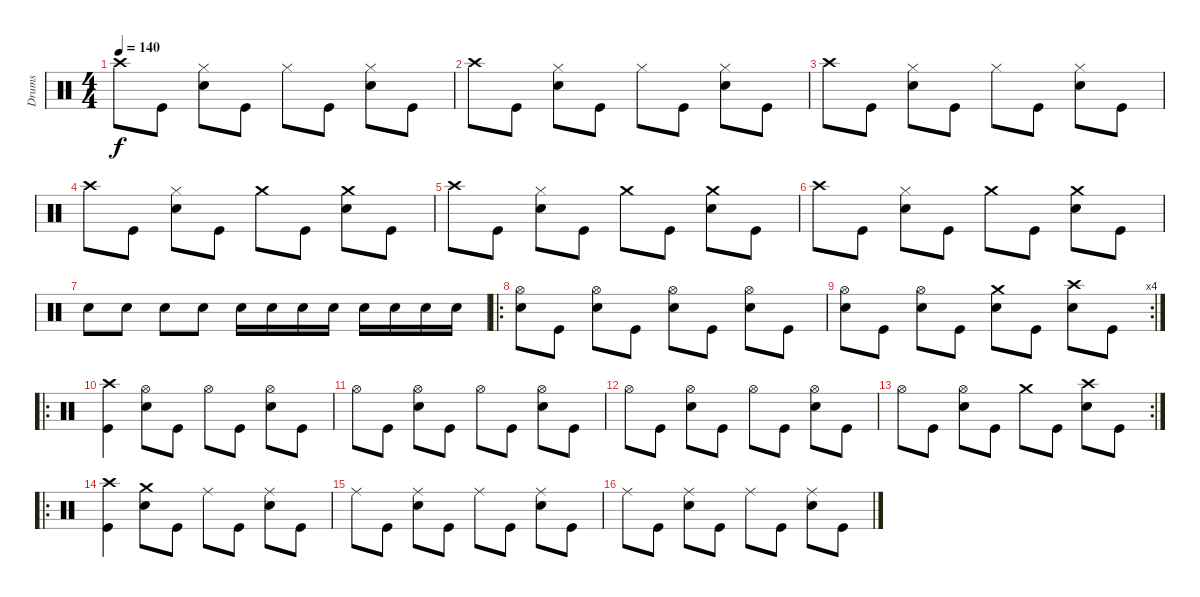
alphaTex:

\track ("Drums" "Drums") {instrument percussion}
\staff {score}
\articulation defaults
\ts (4 4)
\tempo 140
\clef neutral
\ks c "Crash high (hit)".8{dy f} "Kick (hit)".8
("Hi-Hat (closed)" "Electric Snare (hit)").8 "Kick (hit)".8 "Hi-Hat (closed)".8 "Kick (hit)".8 ("Hi-Hat (closed)" "Electric Snare (hit)").8 "Kick (hit)".8 |
"Crash high (hit)".8 "Kick (hit)".8 ("Hi-Hat (closed)" "Electric Snare (hit)").8 "Kick (hit)".8 "Hi-Hat (closed)".8 "Kick (hit)".8 ("Hi-Hat (closed)" "Electric Snare (hit)").8 "Kick (hit)".8 |
"Crash high (hit)".8 "Kick (hit)".8 ("Hi-Hat (closed)" "Electric Snare (hit)").8 "Kick (hit)".8 "Hi-Hat (closed)".8 "Kick (hit)".8 ("Hi-Hat (closed)" "Electric Snare (hit)").8 "Kick (hit)".8 |
"Crash high (hit)".8 "Kick (hit)".8 ("Hi-Hat (closed)" "Electric Snare (hit)").8 "Kick (hit)".8 "Crash medium (hit)".8 "Kick (hit)".8 ("Crash medium (hit)" "Electric Snare (hit)").8 "Kick (hit)".8 |
"Crash high (hit)".8 "Kick (hit)".8 ("Hi-Hat (closed)" "Electric Snare (hit)").8 "Kick (hit)".8 "Crash medium (hit)".8 "Kick (hit)".8 ("Crash medium (hit)" "Electric Snare (hit)").8 "Kick (hit)".8 |
"Crash high (hit)".8 "Kick (hit)".8 ("Hi-Hat (closed)" "Electric Snare (hit)").8 "Kick (hit)".8 "Crash medium (hit)".8 "Kick (hit)".8 ("Crash medium (hit)" "Electric Snare (hit)").8 "Kick (hit)".8 |
"Electric Snare (hit)".8 "Electric Snare (hit)".8 "Electric Snare (hit)".8 "Electric Snare (hit)".8 "Electric Snare (hit)".16 "Electric Snare (hit)".16 "Electric Snare (hit)".16 "Electric Snare (hit)".16 "Electric Snare (hit)".16 "Electric Snare (hit)".16 "Electric Snare (hit)".16 "Electric Snare (hit)".16 |
\ro
("Hi-Hat (open)" "Electric Snare (hit)").8 "Kick (hit)".8 ("Hi-Hat (open)" "Electric Snare (hit)").8 "Kick (hit)".8 ("Hi-Hat (open)" "Electric Snare (hit)").8 "Kick (hit)".8 ("Hi-Hat (open)" "Electric Snare (hit)").8 "Kick (hit)".8 |
\rc 4
("Hi-Hat (open)" "Electric Snare (hit)").8 "Kick (hit)".8 ("Hi-Hat (open)" "Electric Snare (hit)").8 "Kick (hit)".8 ("Crash medium (hit)" "Electric Snare (hit)").8 "Kick (hit)".8 ("Crash high (hit)" "Electric Snare (hit)").8 "Kick (hit)".8 |
\ro
("Crash high (hit)" "Kick (hit)").4 ("Hi-Hat (open)" "Electric Snare (hit)").8 "Kick (hit)".8 "Hi-Hat (open)".8 "Kick (hit)".8 ("Hi-Hat (open)" "Electric Snare (hit)").8 "Kick (hit)".8 |
"Hi-Hat (open)".8 "Kick (hit)".8 ("Hi-Hat (open)" "Electric Snare (hit)").8 "Kick (hit)".8 "Hi-Hat (open)".8 "Kick (hit)".8 ("Hi-Hat (open)" "Electric Snare (hit)").8 "Kick (hit)".8 |
"Hi-Hat (open)".8 "Kick (hit)".8 ("Hi-Hat (open)" "Electric Snare (hit)").8 "Kick (hit)".8 "Hi-Hat (open)".8 "Kick (hit)".8 ("Hi-Hat (open)" "Electric Snare (hit)").8 "Kick (hit)".8 |
\rc 2 "Hi-Hat (open)".8 "Kick (hit)".8
("Hi-Hat (open)" "Electric Snare (hit)").8 "Kick (hit)".8 "Crash medium (hit)".8 "Kick (hit)".8 ("Crash high (hit)" "Electric Snare (hit)").8 "Kick (hit)".8 |
\ro
("Crash high (hit)" "Kick (hit)").4 ("Crash medium (hit)" "Electric Snare (hit)").8 "Kick (hit)".8 "Ride (middle)".8 "Kick (hit)".8 ("Ride (middle)" "Electric Snare (hit)").8 "Kick (hit)".8 |
"Ride (middle)".8 "Kick (hit)".8 ("Ride (middle)" "Electric Snare (hit)").8 "Kick (hit)".8 "Ride (middle)".8 "Kick (hit)".8 ("Ride (middle)" "Electric Snare (hit)").8 "Kick (hit)".8 |
"Ride (middle)".8 "Kick (hit)".8 ("Ride (middle)" "Electric Snare (hit)").8 "Kick (hit)".8 "Ride (middle)".8 "Kick (hit)".8 ("Ride (middle)" "Electric Snare (hit)").8 "Kick (hit)".8
